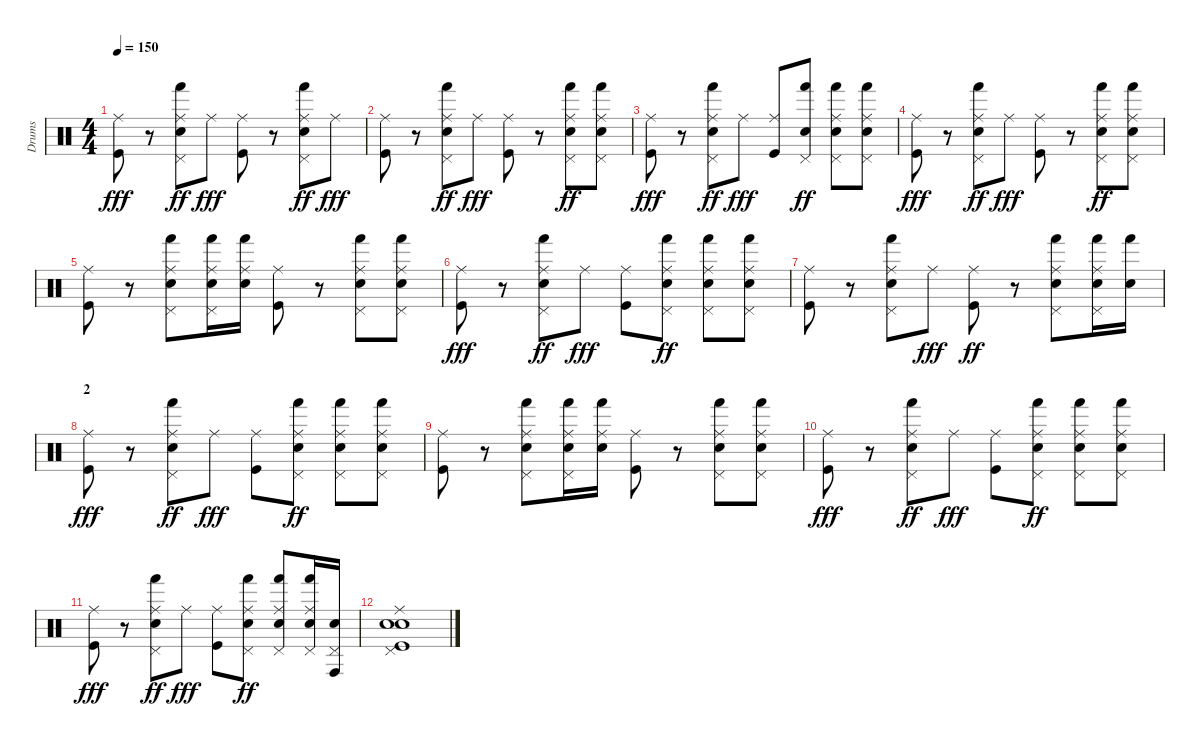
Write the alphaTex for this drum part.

\track ("Drums" "Drums") {instrument percussion}
\staff {score}
\articulation defaults
\ts (4 4)
\tempo 150
\clef neutral
\ks c
("Ride (middle)" "Kick (hit)").8{dy fff} r.8 ("Ride (middle)" "Pedal Hi-Hat (hit)" "Hand (hit)" "Electric Snare (hit)").8{dy ff} "Ride (middle)".8{dy fff} ("Ride (middle)" "Kick (hit)").8 r.8 ("Ride (middle)" "Pedal Hi-Hat (hit)" "Hand (hit)" "Electric Snare (hit)").8{dy ff} "Ride (middle)".8{dy fff} |
("Ride (middle)" "Kick (hit)").8 r.8 ("Ride (middle)" "Pedal Hi-Hat (hit)" "Hand (hit)" "Electric Snare (hit)").8{dy ff} "Ride (middle)".8{dy fff} ("Ride (middle)" "Kick (hit)").8 r.8 ("Ride (middle)" "Pedal Hi-Hat (hit)" "Hand (hit)" "Electric Snare (hit)").8{dy ff} ("Ride (middle)" "Pedal Hi-Hat (hit)" "Hand (hit)" "Electric Snare (hit)").8 |
("Ride (middle)" "Kick (hit)").8{dy fff} r.8 ("Ride (middle)" "Pedal Hi-Hat (hit)" "Hand (hit)" "Electric Snare (hit)").8{dy ff} "Ride (middle)".8{dy fff} ("Ride (middle)" "Kick (hit)").8 ("Pedal Hi-Hat (hit)" "Hand (hit)" "Electric Snare (hit)").8{dy ff} ("Ride (middle)" "Pedal Hi-Hat (hit)" "Hand (hit)" "Electric Snare (hit)").8 ("Ride (middle)" "Pedal Hi-Hat (hit)" "Hand (hit)" "Electric Snare (hit)").8 |
("Ride (middle)" "Kick (hit)").8{dy fff} r.8 ("Ride (middle)" "Pedal Hi-Hat (hit)" "Hand (hit)" "Electric Snare (hit)").8{dy ff} "Ride (middle)".8{dy fff} ("Ride (middle)" "Kick (hit)").8 r.8 ("Ride (middle)" "Pedal Hi-Hat (hit)" "Hand (hit)" "Electric Snare (hit)").8{dy ff} ("Ride (middle)" "Pedal Hi-Hat (hit)" "Hand (hit)" "Electric Snare (hit)").8 |
("Ride (middle)" "Kick (hit)").8 r.8 ("Ride (middle)" "Pedal Hi-Hat (hit)" "Hand (hit)" "Electric Snare (hit)").8 ("Ride (middle)" "Pedal Hi-Hat (hit)" "Hand (hit)" "Electric Snare (hit)").16 ("Ride (middle)" "Hand (hit)" "Electric Snare (hit)").16 ("Ride (middle)" "Kick (hit)").8 r.8 ("Ride (middle)" "Pedal Hi-Hat (hit)" "Hand (hit)" "Electric Snare (hit)").8 ("Ride (middle)" "Pedal Hi-Hat (hit)" "Hand (hit)" "Electric Snare (hit)").8 |
("Ride (middle)" "Kick (hit)").8{dy fff} r.8 ("Ride (middle)" "Pedal Hi-Hat (hit)" "Hand (hit)" "Electric Snare (hit)").8{dy ff} "Ride (middle)".8{dy fff} ("Ride (middle)" "Kick (hit)").8 ("Ride (middle)" "Pedal Hi-Hat (hit)" "Hand (hit)" "Electric Snare (hit)").8{dy ff} ("Ride (middle)" "Pedal Hi-Hat (hit)" "Hand (hit)" "Electric Snare (hit)").8 ("Ride (middle)" "Pedal Hi-Hat (hit)" "Hand (hit)" "Electric Snare (hit)").8 |
("Ride (middle)" "Kick (hit)").8 r.8 ("Ride (middle)" "Pedal Hi-Hat (hit)" "Hand (hit)" "Electric Snare (hit)").8 "Ride (middle)".8{dy fff} ("Ride (middle)" "Kick (hit)").8{dy ff} r.8 ("Ride (middle)" "Pedal Hi-Hat (hit)" "Hand (hit)" "Electric Snare (hit)").8 ("Ride (middle)" "Pedal Hi-Hat (hit)" "Hand (hit)" "Electric Snare (hit)").16 ("Hand (hit)" "Electric Snare (hit)").16 |
\section ("" "2")
("Ride (middle)" "Kick (hit)").8{dy fff} r.8 ("Ride (middle)" "Pedal Hi-Hat (hit)" "Hand (hit)" "Electric Snare (hit)").8{dy ff} "Ride (middle)".8{dy fff} ("Ride (middle)" "Kick (hit)").8 ("Ride (middle)" "Pedal Hi-Hat (hit)" "Hand (hit)" "Electric Snare (hit)").8{dy ff} ("Ride (middle)" "Pedal Hi-Hat (hit)" "Hand (hit)" "Electric Snare (hit)").8 ("Ride (middle)" "Pedal Hi-Hat (hit)" "Hand (hit)" "Electric Snare (hit)").8 |
("Ride (middle)" "Kick (hit)").8 r.8 ("Ride (middle)" "Pedal Hi-Hat (hit)" "Hand (hit)" "Electric Snare (hit)").8 ("Ride (middle)" "Pedal Hi-Hat (hit)" "Hand (hit)" "Electric Snare (hit)").16 ("Ride (middle)" "Hand (hit)" "Electric Snare (hit)").16 ("Ride (middle)" "Kick (hit)").8 r.8 ("Ride (middle)" "Pedal Hi-Hat (hit)" "Hand (hit)" "Electric Snare (hit)").8 ("Ride (middle)" "Pedal Hi-Hat (hit)" "Hand (hit)" "Electric Snare (hit)").8 |
("Ride (middle)" "Kick (hit)").8{dy fff} r.8 ("Ride (middle)" "Pedal Hi-Hat (hit)" "Hand (hit)" "Electric Snare (hit)").8{dy ff} "Ride (middle)".8{dy fff} ("Ride (middle)" "Kick (hit)").8 ("Ride (middle)" "Pedal Hi-Hat (hit)" "Hand (hit)" "Electric Snare (hit)").8{dy ff} ("Ride (middle)" "Pedal Hi-Hat (hit)" "Hand (hit)" "Electric Snare (hit)").8 ("Ride (middle)" "Pedal Hi-Hat (hit)" "Hand (hit)" "Electric Snare (hit)").8 |
("Ride (middle)" "Kick (hit)").8{dy fff} r.8 ("Ride (middle)" "Pedal Hi-Hat (hit)" "Hand (hit)" "Electric Snare (hit)").8{dy ff} "Ride (middle)".8{dy fff} ("Ride (middle)" "Kick (hit)").8 ("Ride (middle)" "Pedal Hi-Hat (hit)" "Hand (hit)" "Electric Snare (hit)").8{dy ff} ("Ride (middle)" "Pedal Hi-Hat (hit)" "Hand (hit)" "Electric Snare (hit)").8 ("Ride (middle)" "Pedal Hi-Hat (hit)" "Hand (hit)" "Electric Snare (hit)").16 ("Pedal Hi-Hat (hit)" "Conga high (hit)" "Electric Snare (hit)").16 |
("Ride (middle)" "Pedal Hi-Hat (hit)" "Snare (hit) 2" "Electric Snare (hit)" "Kick (hit)").1
